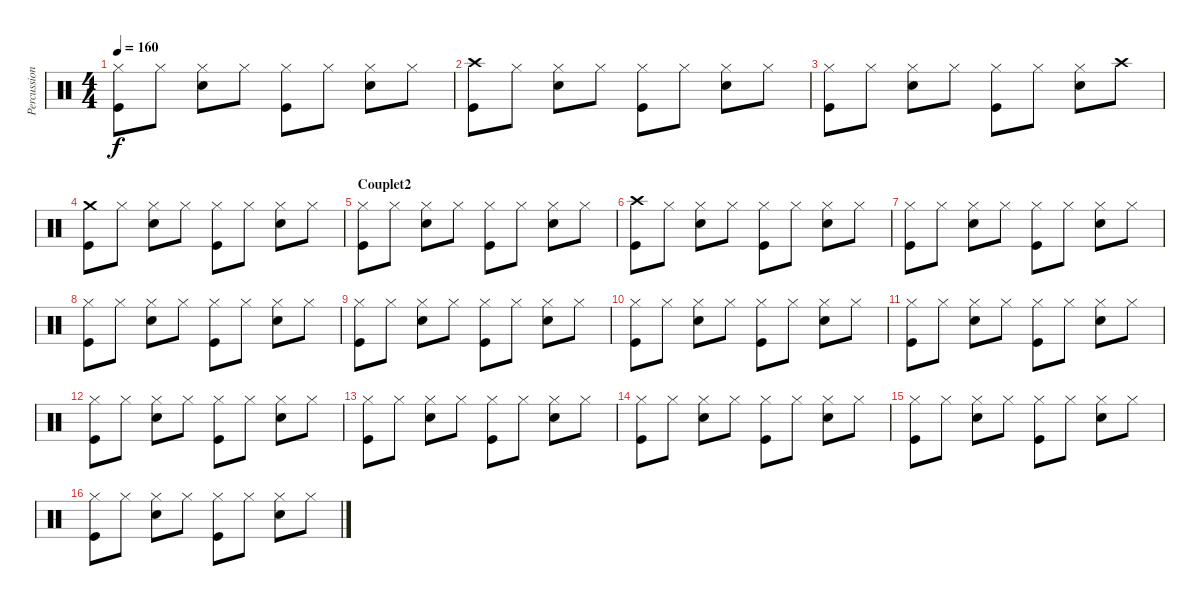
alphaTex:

\track ("Percussions" "Percussion") {instrument percussion}
\staff {score}
\articulation defaults
\ts (4 4)
\tempo 160
\clef neutral
\ks c
("Hi-Hat (closed)" "Kick (hit)").8{dy f} "Hi-Hat (closed)".8 ("Hi-Hat (closed)" "Snare (hit) 2").8 "Hi-Hat (closed)".8 ("Hi-Hat (closed)" "Kick (hit)").8 "Hi-Hat (closed)".8 ("Hi-Hat (closed)" "Snare (hit) 2").8 "Hi-Hat (closed)".8 |
("Crash high (hit)" "Kick (hit)").8 "Hi-Hat (closed)".8 ("Hi-Hat (closed)" "Snare (hit) 2").8 "Hi-Hat (closed)".8 ("Hi-Hat (closed)" "Kick (hit)").8 "Hi-Hat (closed)".8 ("Hi-Hat (closed)" "Snare (hit) 2").8 "Hi-Hat (closed)".8 |
("Hi-Hat (closed)" "Kick (hit)").8 "Hi-Hat (closed)".8 ("Hi-Hat (closed)" "Snare (hit) 2").8 "Hi-Hat (closed)".8 ("Hi-Hat (closed)" "Kick (hit)").8 "Hi-Hat (closed)".8 ("Hi-Hat (closed)" "Snare (hit) 2").8 "Crash high (hit)".8 |
("Crash medium (hit)" "Kick (hit)").8 "Hi-Hat (closed)".8 ("Hi-Hat (closed)" "Snare (hit) 2").8 "Hi-Hat (closed)".8 ("Hi-Hat (closed)" "Kick (hit)").8 "Hi-Hat (closed)".8 ("Hi-Hat (closed)" "Snare (hit) 2").8 "Hi-Hat (closed)".8 |
\section ("" "Couplet2")
("Hi-Hat (closed)" "Kick (hit)").8 "Hi-Hat (closed)".8 ("Hi-Hat (closed)" "Snare (hit) 2").8 "Hi-Hat (closed)".8 ("Hi-Hat (closed)" "Kick (hit)").8 "Hi-Hat (closed)".8 ("Hi-Hat (closed)" "Snare (hit) 2").8 "Hi-Hat (closed)".8 |
("Crash high (hit)" "Kick (hit)").8 "Hi-Hat (closed)".8 ("Hi-Hat (closed)" "Snare (hit) 2").8 "Hi-Hat (closed)".8 ("Hi-Hat (closed)" "Kick (hit)").8 "Hi-Hat (closed)".8 ("Hi-Hat (closed)" "Snare (hit) 2").8 "Hi-Hat (closed)".8 |
("Hi-Hat (closed)" "Kick (hit)").8 "Hi-Hat (closed)".8 ("Hi-Hat (closed)" "Snare (hit) 2").8 "Hi-Hat (closed)".8 ("Hi-Hat (closed)" "Kick (hit)").8 "Hi-Hat (closed)".8 ("Hi-Hat (closed)" "Snare (hit) 2").8 "Hi-Hat (closed)".8 |
("Hi-Hat (closed)" "Kick (hit)").8 "Hi-Hat (closed)".8 ("Hi-Hat (closed)" "Snare (hit) 2").8 "Hi-Hat (closed)".8 ("Hi-Hat (closed)" "Kick (hit)").8 "Hi-Hat (closed)".8 ("Hi-Hat (closed)" "Snare (hit) 2").8 "Hi-Hat (closed)".8 |
("Hi-Hat (closed)" "Kick (hit)").8 "Hi-Hat (closed)".8 ("Hi-Hat (closed)" "Snare (hit) 2").8 "Hi-Hat (closed)".8 ("Hi-Hat (closed)" "Kick (hit)").8 "Hi-Hat (closed)".8 ("Hi-Hat (closed)" "Snare (hit) 2").8 "Hi-Hat (closed)".8 |
("Hi-Hat (closed)" "Kick (hit)").8 "Hi-Hat (closed)".8 ("Hi-Hat (closed)" "Snare (hit) 2").8 "Hi-Hat (closed)".8 ("Hi-Hat (closed)" "Kick (hit)").8 "Hi-Hat (closed)".8 ("Hi-Hat (closed)" "Snare (hit) 2").8 "Hi-Hat (closed)".8 |
("Hi-Hat (closed)" "Kick (hit)").8 "Hi-Hat (closed)".8 ("Hi-Hat (closed)" "Snare (hit) 2").8 "Hi-Hat (closed)".8 ("Hi-Hat (closed)" "Kick (hit)").8 "Hi-Hat (closed)".8 ("Hi-Hat (closed)" "Snare (hit) 2").8 "Hi-Hat (closed)".8 |
("Hi-Hat (closed)" "Kick (hit)").8 "Hi-Hat (closed)".8 ("Hi-Hat (closed)" "Snare (hit) 2").8 "Hi-Hat (closed)".8 ("Hi-Hat (closed)" "Kick (hit)").8 "Hi-Hat (closed)".8 ("Hi-Hat (closed)" "Snare (hit) 2").8 "Hi-Hat (closed)".8 |
("Hi-Hat (closed)" "Kick (hit)").8 "Hi-Hat (closed)".8 ("Hi-Hat (closed)" "Snare (hit) 2").8 "Hi-Hat (closed)".8 ("Hi-Hat (closed)" "Kick (hit)").8 "Hi-Hat (closed)".8 ("Hi-Hat (closed)" "Snare (hit) 2").8 "Hi-Hat (closed)".8 |
("Hi-Hat (closed)" "Kick (hit)").8 "Hi-Hat (closed)".8 ("Hi-Hat (closed)" "Snare (hit) 2").8 "Hi-Hat (closed)".8 ("Hi-Hat (closed)" "Kick (hit)").8 "Hi-Hat (closed)".8 ("Hi-Hat (closed)" "Snare (hit) 2").8 "Hi-Hat (closed)".8 |
("Hi-Hat (closed)" "Kick (hit)").8 "Hi-Hat (closed)".8 ("Hi-Hat (closed)" "Snare (hit) 2").8 "Hi-Hat (closed)".8 ("Hi-Hat (closed)" "Kick (hit)").8 "Hi-Hat (closed)".8 ("Hi-Hat (closed)" "Snare (hit) 2").8 "Hi-Hat (closed)".8 |
("Hi-Hat (closed)" "Kick (hit)").8 "Hi-Hat (closed)".8 ("Hi-Hat (closed)" "Snare (hit) 2").8 "Hi-Hat (closed)".8 ("Hi-Hat (closed)" "Kick (hit)").8 "Hi-Hat (closed)".8 ("Hi-Hat (closed)" "Snare (hit) 2").8 "Hi-Hat (closed)".8
